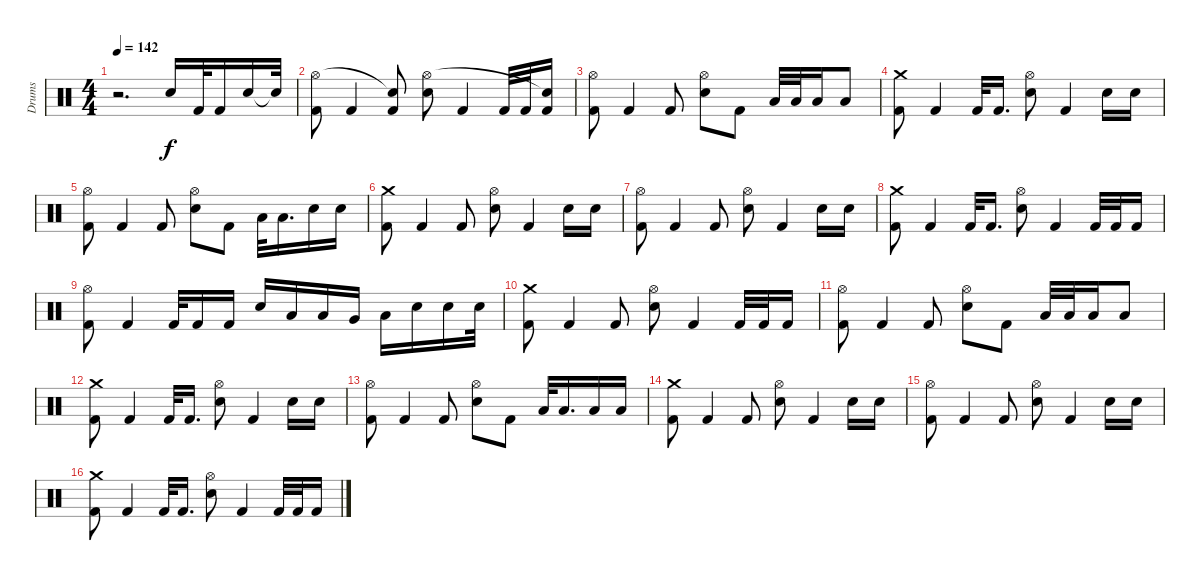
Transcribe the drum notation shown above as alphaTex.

\track ("Drums" "Drums") {instrument percussion}
\staff {score}
\articulation defaults
\ts (4 4)
\tempo 142
\clef neutral
\ks c
r.2{d dy f} "Electric Snare (hit)".16 "Kick (hit) 2".32 "Kick (hit) 2".16 "Electric Snare (hit)".16 "Electric Snare (hit)"{t}.32 |
("Kick (hit) 2" "Hi-Hat (open)").8 "Kick (hit) 2".4 ("Kick (hit) 2" "Snare (hit)"{t}).8 ("Electric Snare (hit)" "Hi-Hat (open)").8 "Kick (hit) 2".4 "Kick (hit) 2".32 "Kick (hit) 2".32 ("Kick (hit) 2" "Snare (hit)"{t}).16 |
("Kick (hit) 2" "Hi-Hat (open)").8 "Kick (hit) 2".4 "Kick (hit) 2".8 ("Electric Snare (hit)" "Hi-Hat (open)").8 "Kick (hit) 2".8 "Low Tom (hit)".32 "Low Tom (hit)".32 "Low Tom (hit)".16 "Low Tom (hit)".8 |
("Kick (hit) 2" "Crash medium (hit)").8 "Kick (hit) 2".4 "Kick (hit) 2".32 "Kick (hit) 2".16{d} ("Electric Snare (hit)" "Hi-Hat (open)").8 "Kick (hit) 2".4 "Electric Snare (hit)".16 "Electric Snare (hit)".16 |
("Kick (hit) 2" "Hi-Hat (open)").8 "Kick (hit) 2".4 "Kick (hit) 2".8 ("Electric Snare (hit)" "Hi-Hat (open)").8 "Kick (hit) 2".8 "Low Tom (hit)".32 "Low Tom (hit)".16{d} "Electric Snare (hit)".16 "Electric Snare (hit)".16 |
("Kick (hit) 2" "Crash medium (hit)").8 "Kick (hit) 2".4 "Kick (hit) 2".8 ("Electric Snare (hit)" "Hi-Hat (open)").8 "Kick (hit) 2".4 "Electric Snare (hit)".16 "Electric Snare (hit)".16 |
("Kick (hit) 2" "Hi-Hat (open)").8 "Kick (hit) 2".4 "Kick (hit) 2".8 ("Electric Snare (hit)" "Hi-Hat (open)").8 "Kick (hit) 2".4 "Electric Snare (hit)".16 "Electric Snare (hit)".16 |
("Kick (hit) 2" "Crash medium (hit)").8 "Kick (hit) 2".4 "Kick (hit) 2".32 "Kick (hit) 2".16{d} ("Electric Snare (hit)" "Hi-Hat (open)").8 "Kick (hit) 2".4 "Kick (hit) 2".32 "Kick (hit) 2".32 "Kick (hit) 2".16 |
("Kick (hit) 2" "Hi-Hat (open)").8 "Kick (hit) 2".4 "Kick (hit) 2".32 "Kick (hit) 2".16 "Kick (hit) 2".16 "Electric Snare (hit)".16 "Low Tom (hit)".16 "Low Tom (hit)".16 "Very Low Tom (hit)".16 "Low Floor Tom (hit)".16 "Electric Snare (hit)".16 "Electric Snare (hit)".16 "Electric Snare (hit)".32 |
("Kick (hit) 2" "Crash medium (hit)").8 "Kick (hit) 2".4 "Kick (hit) 2".8 ("Electric Snare (hit)" "Hi-Hat (open)").8 "Kick (hit) 2".4 "Kick (hit) 2".32 "Kick (hit) 2".32 "Kick (hit) 2".16 |
("Kick (hit) 2" "Hi-Hat (open)").8 "Kick (hit) 2".4 "Kick (hit) 2".8 ("Electric Snare (hit)" "Hi-Hat (open)").8 "Kick (hit) 2".8 "Low Tom (hit)".32 "Low Tom (hit)".32 "Low Tom (hit)".16 "Low Tom (hit)".8 |
("Kick (hit) 2" "Crash medium (hit)").8 "Kick (hit) 2".4 "Kick (hit) 2".32 "Kick (hit) 2".16{d} ("Electric Snare (hit)" "Hi-Hat (open)").8 "Kick (hit) 2".4 "Electric Snare (hit)".16 "Electric Snare (hit)".16 |
("Kick (hit) 2" "Hi-Hat (open)").8 "Kick (hit) 2".4 "Kick (hit) 2".8 ("Electric Snare (hit)" "Hi-Hat (open)").8 "Kick (hit) 2".8 "Low Tom (hit)".32 "Low Tom (hit)".16{d} "Low Tom (hit)".16 "Low Tom (hit)".16 |
("Kick (hit) 2" "Crash medium (hit)").8 "Kick (hit) 2".4 "Kick (hit) 2".8 ("Electric Snare (hit)" "Hi-Hat (open)").8 "Kick (hit) 2".4 "Electric Snare (hit)".16 "Electric Snare (hit)".16 |
("Kick (hit) 2" "Hi-Hat (open)").8 "Kick (hit) 2".4 "Kick (hit) 2".8 ("Electric Snare (hit)" "Hi-Hat (open)").8 "Kick (hit) 2".4 "Electric Snare (hit)".16 "Electric Snare (hit)".16 |
("Kick (hit) 2" "Crash medium (hit)").8 "Kick (hit) 2".4 "Kick (hit) 2".32 "Kick (hit) 2".16{d} ("Electric Snare (hit)" "Hi-Hat (open)").8 "Kick (hit) 2".4 "Kick (hit) 2".32 "Kick (hit) 2".32 "Kick (hit) 2".16
